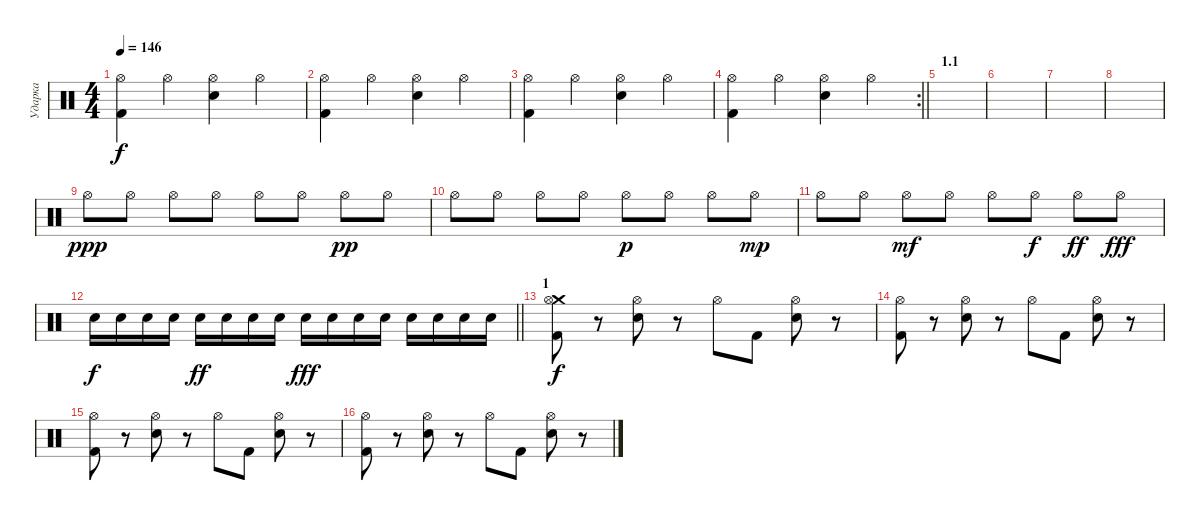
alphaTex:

\track ("Ударка" "Ударка") {instrument percussion}
\staff {score}
\articulation defaults
\ts (4 4)
\tempo 146
\clef neutral
\ks c
("Hi-Hat (open)" "Kick (hit) 2").4{dy f} "Hi-Hat (open)".4 ("Hi-Hat (open)" "Electric Snare (hit)").4 "Hi-Hat (open)".4 |
("Hi-Hat (open)" "Kick (hit) 2").4 "Hi-Hat (open)".4 ("Hi-Hat (open)" "Electric Snare (hit)").4 "Hi-Hat (open)".4 |
("Hi-Hat (open)" "Kick (hit) 2").4 "Hi-Hat (open)".4 ("Hi-Hat (open)" "Electric Snare (hit)").4 "Hi-Hat (open)".4 |
\rc 2
\barLineRight lightlight
("Hi-Hat (open)" "Kick (hit) 2").4 "Hi-Hat (open)".4 ("Hi-Hat (open)" "Electric Snare (hit)").4 "Hi-Hat (open)".4 |
\section ("" "1.1")
|
|
|
|
"Hi-Hat (open)".8{dy ppp} "Hi-Hat (open)".8 "Hi-Hat (open)".8 "Hi-Hat (open)".8 "Hi-Hat (open)".8 "Hi-Hat (open)".8 "Hi-Hat (open)".8{dy pp} "Hi-Hat (open)".8 |
"Hi-Hat (open)".8 "Hi-Hat (open)".8 "Hi-Hat (open)".8 "Hi-Hat (open)".8 "Hi-Hat (open)".8{dy p} "Hi-Hat (open)".8 "Hi-Hat (open)".8 "Hi-Hat (open)".8{dy mp} |
"Hi-Hat (open)".8 "Hi-Hat (open)".8 "Hi-Hat (open)".8{dy mf} "Hi-Hat (open)".8 "Hi-Hat (open)".8 "Hi-Hat (open)".8{dy f} "Hi-Hat (open)".8{dy ff} "Hi-Hat (open)".8{dy fff} |
\barLineRight lightlight "Electric Snare (hit)".16{dy f} "Electric Snare (hit)".16 "Electric Snare (hit)".16 "Electric Snare (hit)".16 "Electric Snare (hit)".16{dy ff} "Electric Snare (hit)".16 "Electric Snare (hit)".16 "Electric Snare (hit)".16 "Electric Snare (hit)".16{dy fff} "Electric Snare (hit)".16 "Electric Snare (hit)".16 "Electric Snare (hit)".16 "Electric Snare (hit)".16 "Electric Snare (hit)".16 "Electric Snare (hit)".16 "Electric Snare (hit)".16
|
\section ("" "1")
("Crash medium (hit)" "Hi-Hat (open)" "Kick (hit) 2").8{dy f} r.8 ("Hi-Hat (open)" "Electric Snare (hit)").8 r.8 "Hi-Hat (open)".8 "Kick (hit) 2".8 ("Hi-Hat (open)" "Electric Snare (hit)").8 r.8 |
("Hi-Hat (open)" "Kick (hit) 2").8 r.8 ("Hi-Hat (open)" "Electric Snare (hit)").8 r.8 "Hi-Hat (open)".8 "Kick (hit) 2".8 ("Hi-Hat (open)" "Electric Snare (hit)").8 r.8 |
("Hi-Hat (open)" "Kick (hit) 2").8 r.8 ("Hi-Hat (open)" "Electric Snare (hit)").8 r.8 "Hi-Hat (open)".8 "Kick (hit) 2".8 ("Hi-Hat (open)" "Electric Snare (hit)").8 r.8 |
("Hi-Hat (open)" "Kick (hit) 2").8 r.8 ("Hi-Hat (open)" "Electric Snare (hit)").8 r.8 "Hi-Hat (open)".8 "Kick (hit) 2".8 ("Hi-Hat (open)" "Electric Snare (hit)").8 r.8
